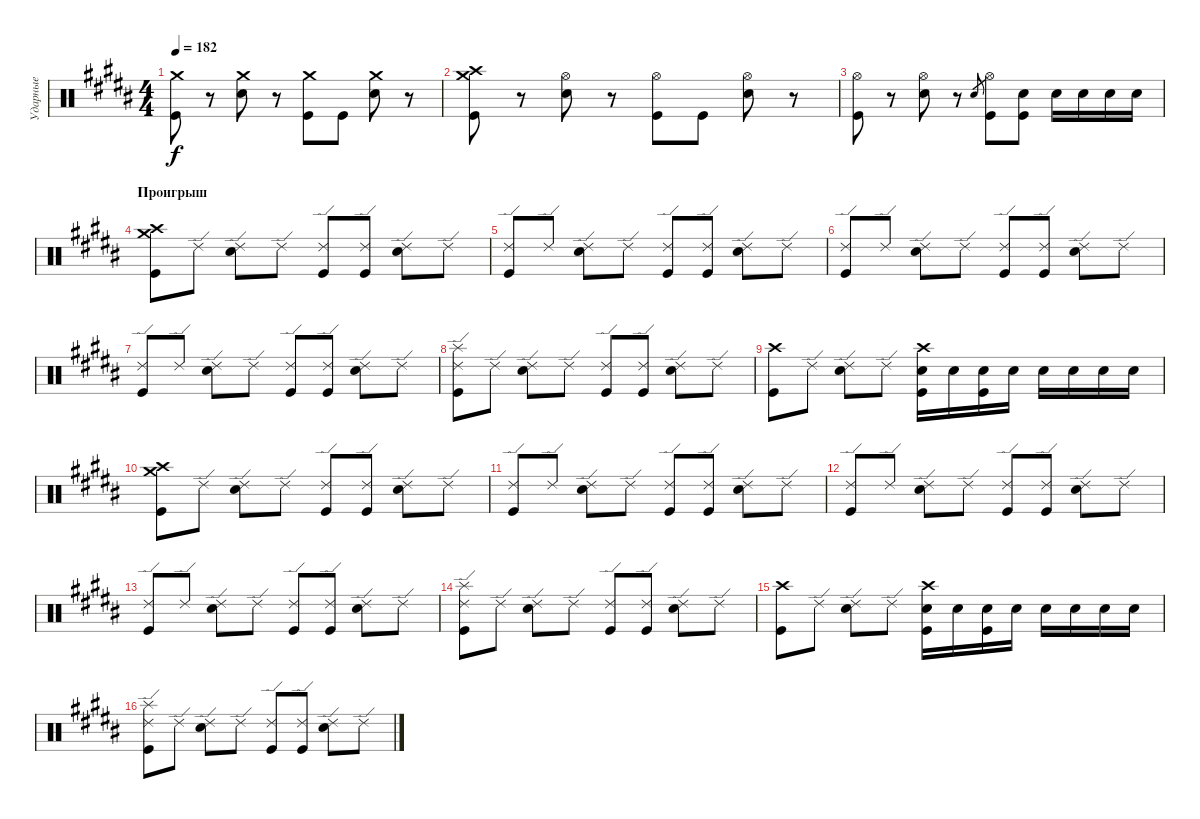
\track ("Ударные" "Ударные") {instrument percussion}
\staff {score}
\articulation defaults
\ts (4 4)
\tempo 182
\clef neutral
\ks b
("Crash medium (hit)" "Kick (hit)").8{dy f} r.8 ("Crash medium (hit)" "Electric Snare (hit)").8 r.8 ("Crash medium (hit)" "Kick (hit)").8 "Kick (hit)".8 ("Crash medium (hit)" "Electric Snare (hit)").8 r.8 |
("Crash medium (hit)" "Crash high (hit)" "Kick (hit)").8 r.8 ("Electric Snare (hit)" "Hi-Hat (open)").8 r.8 ("Kick (hit)" "Hi-Hat (open)").8 "Kick (hit)".8 ("Electric Snare (hit)" "Hi-Hat (open)").8 r.8 |
("Hi-Hat (open)" "Kick (hit)").8 r.8 ("Hi-Hat (open)" "Electric Snare (hit)").8 r.8 "Electric Snare (hit)".8{gr} ("Kick (hit)" "Hi-Hat (open)").8 ("Electric Snare (hit)" "Kick (hit)").8 "Electric Snare (hit)".16 "Electric Snare (hit)".16 "Electric Snare (hit)".16 "Electric Snare (hit)".16 |
\section ("" "Проигрыш")
("Crash high (hit)" "Kick (hit)" "Crash medium (hit)").8 "Ride (edge) 2".8 ("Electric Snare (hit)" "Ride (edge) 2").8 "Ride (edge) 2".8 ("Kick (hit)" "Ride (edge) 2").8 ("Kick (hit)" "Ride (edge) 2").8 ("Electric Snare (hit)" "Ride (edge) 2").8 "Ride (edge) 2".8 |
("Ride (edge) 2" "Kick (hit)").8 "Ride (edge) 2".8 ("Electric Snare (hit)" "Ride (edge) 2").8 "Ride (edge) 2".8 ("Kick (hit)" "Ride (edge) 2").8 ("Kick (hit)" "Ride (edge) 2").8 ("Electric Snare (hit)" "Ride (edge) 2").8 "Ride (edge) 2".8 |
("Ride (edge) 2" "Kick (hit)").8 "Ride (edge) 2".8 ("Electric Snare (hit)" "Ride (edge) 2").8 "Ride (edge) 2".8 ("Kick (hit)" "Ride (edge) 2").8 ("Kick (hit)" "Ride (edge) 2").8 ("Electric Snare (hit)" "Ride (edge) 2").8 "Ride (edge) 2".8 |
("Ride (edge) 2" "Kick (hit)").8 "Ride (edge) 2".8 ("Electric Snare (hit)" "Ride (edge) 2").8 "Ride (edge) 2".8 ("Kick (hit)" "Ride (edge) 2").8 ("Kick (hit)" "Ride (edge) 2").8 ("Electric Snare (hit)" "Ride (edge) 2").8 "Ride (edge) 2".8 |
("Splash (hit)" "Kick (hit)" "Ride (edge) 2").8 "Ride (edge) 2".8 ("Electric Snare (hit)" "Ride (edge) 2").8 "Ride (edge) 2".8 ("Kick (hit)" "Ride (edge) 2").8 ("Kick (hit)" "Ride (edge) 2").8 ("Electric Snare (hit)" "Ride (edge) 2").8 "Ride (edge) 2".8 |
("Kick (hit)" "Crash high (hit)").8 "Ride (edge) 2".8 ("Electric Snare (hit)" "Ride (edge) 2").8 "Ride (edge) 2".8 ("Electric Snare (hit)" "Kick (hit)" "Crash high (hit)").16 "Electric Snare (hit)".16 ("Electric Snare (hit)" "Kick (hit)").16 "Electric Snare (hit)".16 "Electric Snare (hit)".16 "Electric Snare (hit)".16 "Electric Snare (hit)".16 "Electric Snare (hit)".16 |
("Crash high (hit)" "Kick (hit)" "Crash medium (hit)").8 "Ride (edge) 2".8 ("Electric Snare (hit)" "Ride (edge) 2").8 "Ride (edge) 2".8 ("Kick (hit)" "Ride (edge) 2").8 ("Kick (hit)" "Ride (edge) 2").8 ("Electric Snare (hit)" "Ride (edge) 2").8 "Ride (edge) 2".8 |
("Ride (edge) 2" "Kick (hit)").8 "Ride (edge) 2".8 ("Electric Snare (hit)" "Ride (edge) 2").8 "Ride (edge) 2".8 ("Kick (hit)" "Ride (edge) 2").8 ("Kick (hit)" "Ride (edge) 2").8 ("Electric Snare (hit)" "Ride (edge) 2").8 "Ride (edge) 2".8 |
("Ride (edge) 2" "Kick (hit)").8 "Ride (edge) 2".8 ("Electric Snare (hit)" "Ride (edge) 2").8 "Ride (edge) 2".8 ("Kick (hit)" "Ride (edge) 2").8 ("Kick (hit)" "Ride (edge) 2").8 ("Electric Snare (hit)" "Ride (edge) 2").8 "Ride (edge) 2".8 |
("Ride (edge) 2" "Kick (hit)").8 "Ride (edge) 2".8 ("Electric Snare (hit)" "Ride (edge) 2").8 "Ride (edge) 2".8 ("Kick (hit)" "Ride (edge) 2").8 ("Kick (hit)" "Ride (edge) 2").8 ("Electric Snare (hit)" "Ride (edge) 2").8 "Ride (edge) 2".8 |
("Splash (hit)" "Kick (hit)" "Ride (edge) 2").8 "Ride (edge) 2".8 ("Electric Snare (hit)" "Ride (edge) 2").8 "Ride (edge) 2".8 ("Kick (hit)" "Ride (edge) 2").8 ("Kick (hit)" "Ride (edge) 2").8 ("Electric Snare (hit)" "Ride (edge) 2").8 "Ride (edge) 2".8 |
("Kick (hit)" "Crash high (hit)").8 "Ride (edge) 2".8 ("Electric Snare (hit)" "Ride (edge) 2").8 "Ride (edge) 2".8 ("Electric Snare (hit)" "Kick (hit)" "Crash high (hit)").16 "Electric Snare (hit)".16 ("Electric Snare (hit)" "Kick (hit)").16 "Electric Snare (hit)".16 "Electric Snare (hit)".16 "Electric Snare (hit)".16 "Electric Snare (hit)".16 "Electric Snare (hit)".16 |
("Splash (hit)" "Kick (hit)" "Ride (edge) 2").8 "Ride (edge) 2".8 ("Electric Snare (hit)" "Ride (edge) 2").8 "Ride (edge) 2".8 ("Kick (hit)" "Ride (edge) 2").8 ("Kick (hit)" "Ride (edge) 2").8 ("Electric Snare (hit)" "Ride (edge) 2").8 "Ride (edge) 2".8
